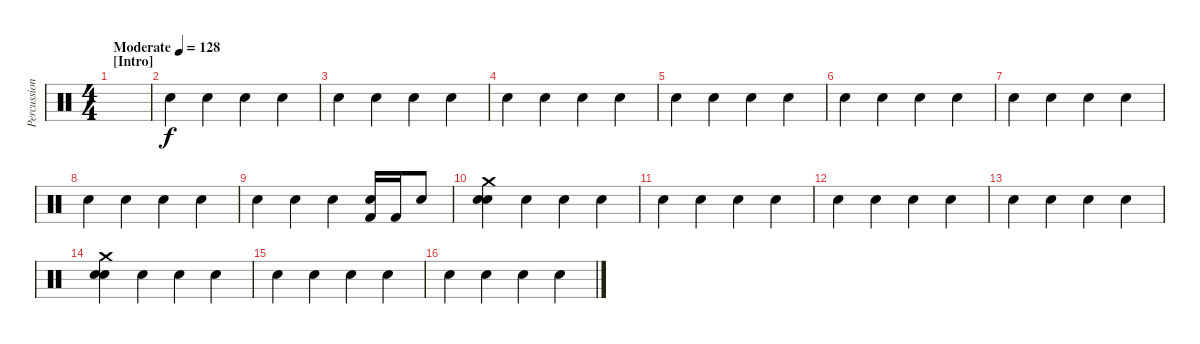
\track ("Percussion" "Percussion") {instrument percussion}
\staff {score}
\articulation defaults
\ts (4 4)
\section ("" "[Intro]")
\tempo (128 "Moderate")
\clef neutral
\ks c
|
"Hand Clap (hit)".4{volume 8} "Hand Clap (hit)".4 "Hand Clap (hit)".4 "Hand Clap (hit)".4 |
"Hand Clap (hit)".4 "Hand Clap (hit)".4 "Hand Clap (hit)".4 "Hand Clap (hit)".4 |
"Hand Clap (hit)".4 "Hand Clap (hit)".4 "Hand Clap (hit)".4 "Hand Clap (hit)".4 |
"Hand Clap (hit)".4 "Hand Clap (hit)".4 "Hand Clap (hit)".4 "Hand Clap (hit)".4 |
"Hand Clap (hit)".4{volume 15} "Hand Clap (hit)".4 "Hand Clap (hit)".4 "Hand Clap (hit)".4 |
"Hand Clap (hit)".4 "Hand Clap (hit)".4 "Hand Clap (hit)".4 "Hand Clap (hit)".4 |
"Hand Clap (hit)".4 "Hand Clap (hit)".4 "Hand Clap (hit)".4 "Hand Clap (hit)".4 |
"Hand Clap (hit)".4 "Hand Clap (hit)".4 "Hand Clap (hit)".4 ("Hand Clap (hit)" "Kick (hit) 2").16 "Kick (hit) 2".16 "Electric Snare (hit)".8 |
("Crash medium (hit)" "Hand Clap (hit)" "Snare (hit) 2").4 "Hand Clap (hit)".4 "Hand Clap (hit)".4 "Hand Clap (hit)".4 |
"Hand Clap (hit)".4 "Hand Clap (hit)".4 "Hand Clap (hit)".4 "Hand Clap (hit)".4 |
"Hand Clap (hit)".4 "Hand Clap (hit)".4 "Hand Clap (hit)".4 "Hand Clap (hit)".4 |
"Hand Clap (hit)".4 "Hand Clap (hit)".4 "Hand Clap (hit)".4 "Hand Clap (hit)".4 |
("Crash medium (hit)" "Hand Clap (hit)" "Snare (hit) 2").4 "Hand Clap (hit)".4 "Hand Clap (hit)".4 "Hand Clap (hit)".4 |
"Hand Clap (hit)".4 "Hand Clap (hit)".4 "Hand Clap (hit)".4 "Hand Clap (hit)".4 |
"Hand Clap (hit)".4 "Hand Clap (hit)".4 "Hand Clap (hit)".4 "Hand Clap (hit)".4
